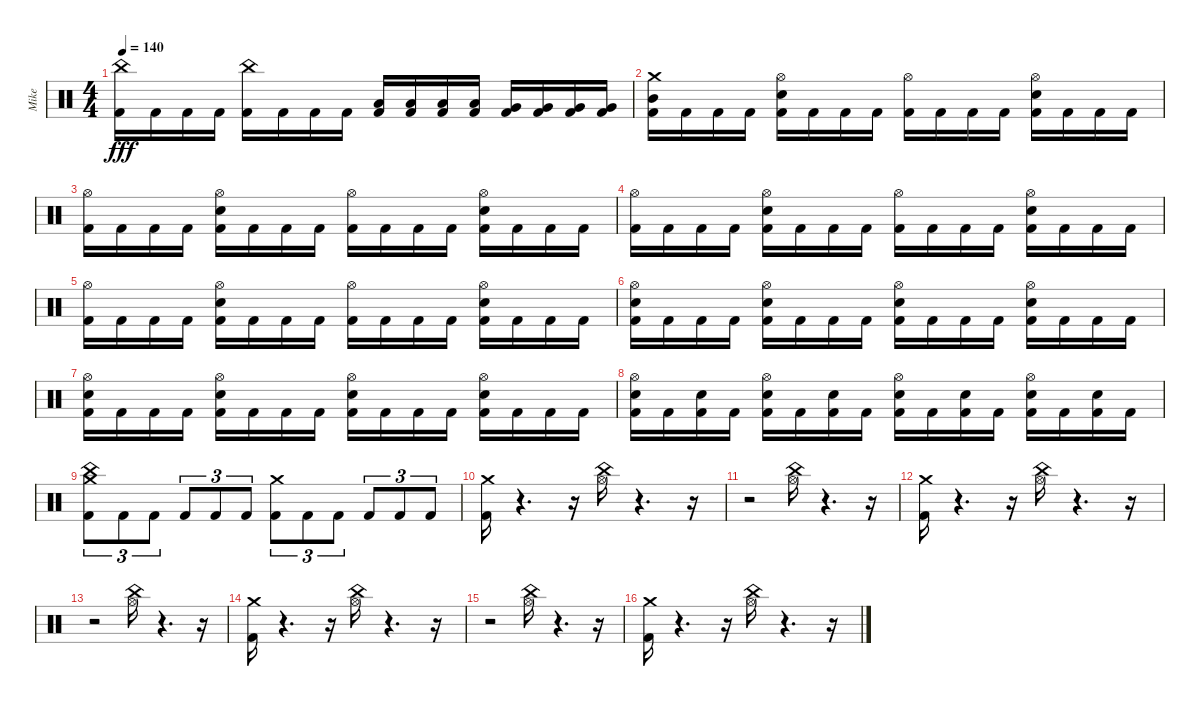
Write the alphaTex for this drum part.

\track ("Mike" "Mike") {instrument percussion}
\staff {score}
\articulation defaults
\ts (4 4)
\tempo 140
\clef neutral
\ks c
("Kick (hit) 2" "China (hit)").16{dy fff} "Kick (hit) 2".16 "Kick (hit) 2".16 "Kick (hit) 2".16 ("Kick (hit) 2" "China (hit)").16 "Kick (hit) 2".16 "Kick (hit) 2".16 "Kick (hit) 2".16 ("Kick (hit) 2" "Low Tom (hit)").16 ("Kick (hit) 2" "Low Tom (hit)").16 ("Kick (hit) 2" "Low Tom (hit)").16 ("Kick (hit) 2" "Low Tom (hit)").16 ("Kick (hit) 2" "Very Low Tom (hit)").16 ("Kick (hit) 2" "Very Low Tom (hit)").16 ("Kick (hit) 2" "Very Low Tom (hit)").16 ("Kick (hit) 2" "Very Low Tom (hit)").16 |
("Kick (hit) 2" "Mid Tom (hit)" "Crash medium (hit)").16 "Kick (hit) 2".16 "Kick (hit) 2".16 "Kick (hit) 2".16 ("Kick (hit) 2" "Electric Snare (hit)" "Hi-Hat (open)").16 "Kick (hit) 2".16 "Kick (hit) 2".16 "Kick (hit) 2".16 ("Kick (hit) 2" "Hi-Hat (open)").16 "Kick (hit) 2".16 "Kick (hit) 2".16 "Kick (hit) 2".16 ("Kick (hit) 2" "Electric Snare (hit)" "Hi-Hat (open)").16 "Kick (hit) 2".16 "Kick (hit) 2".16 "Kick (hit) 2".16 |
("Kick (hit) 2" "Hi-Hat (open)").16 "Kick (hit) 2".16 "Kick (hit) 2".16 "Kick (hit) 2".16 ("Kick (hit) 2" "Electric Snare (hit)" "Hi-Hat (open)").16 "Kick (hit) 2".16 "Kick (hit) 2".16 "Kick (hit) 2".16 ("Kick (hit) 2" "Hi-Hat (open)").16 "Kick (hit) 2".16 "Kick (hit) 2".16 "Kick (hit) 2".16 ("Kick (hit) 2" "Electric Snare (hit)" "Hi-Hat (open)").16 "Kick (hit) 2".16 "Kick (hit) 2".16 "Kick (hit) 2".16 |
("Kick (hit) 2" "Hi-Hat (open)").16 "Kick (hit) 2".16 "Kick (hit) 2".16 "Kick (hit) 2".16 ("Kick (hit) 2" "Electric Snare (hit)" "Hi-Hat (open)").16 "Kick (hit) 2".16 "Kick (hit) 2".16 "Kick (hit) 2".16 ("Kick (hit) 2" "Hi-Hat (open)").16 "Kick (hit) 2".16 "Kick (hit) 2".16 "Kick (hit) 2".16 ("Kick (hit) 2" "Electric Snare (hit)" "Hi-Hat (open)").16 "Kick (hit) 2".16 "Kick (hit) 2".16 "Kick (hit) 2".16 |
("Kick (hit) 2" "Hi-Hat (open)").16 "Kick (hit) 2".16 "Kick (hit) 2".16 "Kick (hit) 2".16 ("Kick (hit) 2" "Electric Snare (hit)" "Hi-Hat (open)").16 "Kick (hit) 2".16 "Kick (hit) 2".16 "Kick (hit) 2".16 ("Kick (hit) 2" "Hi-Hat (open)").16 "Kick (hit) 2".16 "Kick (hit) 2".16 "Kick (hit) 2".16 ("Kick (hit) 2" "Electric Snare (hit)" "Hi-Hat (open)").16 "Kick (hit) 2".16 "Kick (hit) 2".16 "Kick (hit) 2".16 |
("Kick (hit) 2" "Electric Snare (hit)" "Hi-Hat (open)").16 "Kick (hit) 2".16 "Kick (hit) 2".16 "Kick (hit) 2".16 ("Kick (hit) 2" "Electric Snare (hit)" "Hi-Hat (open)").16 "Kick (hit) 2".16 "Kick (hit) 2".16 "Kick (hit) 2".16 ("Kick (hit) 2" "Electric Snare (hit)" "Hi-Hat (open)").16 "Kick (hit) 2".16 "Kick (hit) 2".16 "Kick (hit) 2".16 ("Kick (hit) 2" "Electric Snare (hit)" "Hi-Hat (open)").16 "Kick (hit) 2".16 "Kick (hit) 2".16 "Kick (hit) 2".16 |
("Kick (hit) 2" "Electric Snare (hit)" "Hi-Hat (open)").16 "Kick (hit) 2".16 "Kick (hit) 2".16 "Kick (hit) 2".16 ("Kick (hit) 2" "Electric Snare (hit)" "Hi-Hat (open)").16 "Kick (hit) 2".16 "Kick (hit) 2".16 "Kick (hit) 2".16 ("Kick (hit) 2" "Electric Snare (hit)" "Hi-Hat (open)").16 "Kick (hit) 2".16 "Kick (hit) 2".16 "Kick (hit) 2".16 ("Kick (hit) 2" "Electric Snare (hit)" "Hi-Hat (open)").16 "Kick (hit) 2".16 "Kick (hit) 2".16 "Kick (hit) 2".16 |
("Kick (hit) 2" "Electric Snare (hit)" "Hi-Hat (open)").16 "Kick (hit) 2".16 ("Kick (hit) 2" "Electric Snare (hit)").16 "Kick (hit) 2".16 ("Kick (hit) 2" "Electric Snare (hit)" "Hi-Hat (open)").16 "Kick (hit) 2".16 ("Kick (hit) 2" "Electric Snare (hit)").16 "Kick (hit) 2".16 ("Kick (hit) 2" "Electric Snare (hit)" "Hi-Hat (open)").16 "Kick (hit) 2".16 ("Kick (hit) 2" "Electric Snare (hit)").16 "Kick (hit) 2".16 ("Kick (hit) 2" "Electric Snare (hit)" "Hi-Hat (open)").16 "Kick (hit) 2".16 ("Kick (hit) 2" "Electric Snare (hit)").16 "Kick (hit) 2".16 |
("Kick (hit) 2" "China (hit)" "Crash medium (hit)").8{tu (3 2)} "Kick (hit) 2".8{tu (3 2)} "Kick (hit) 2".8{tu (3 2)} "Kick (hit) 2".8{tu (3 2)} "Kick (hit) 2".8{tu (3 2)} "Kick (hit) 2".8{tu (3 2)} ("Kick (hit) 2" "Crash medium (hit)").8{tu (3 2)} "Kick (hit) 2".8{tu (3 2)} "Kick (hit) 2".8{tu (3 2)} "Kick (hit) 2".8{tu (3 2)} "Kick (hit) 2".8{tu (3 2)} "Kick (hit) 2".8{tu (3 2)} |
("Kick (hit) 2" "Crash medium (hit)").16 r.4{d} r.16 ("Hi-Hat (open)" "China (hit)").16 r.4{d} r.16 |
r.2 ("Hi-Hat (open)" "China (hit)").16 r.4{d} r.16 |
("Kick (hit) 2" "Crash medium (hit)").16 r.4{d} r.16 ("Hi-Hat (open)" "China (hit)").16 r.4{d} r.16 |
r.2 ("Hi-Hat (open)" "China (hit)").16 r.4{d} r.16 |
("Kick (hit) 2" "Crash medium (hit)").16 r.4{d} r.16 ("Hi-Hat (open)" "China (hit)").16 r.4{d} r.16 |
r.2 ("Hi-Hat (open)" "China (hit)").16 r.4{d} r.16 |
("Kick (hit) 2" "Crash medium (hit)").16 r.4{d} r.16 ("Hi-Hat (open)" "China (hit)").16 r.4{d} r.16
